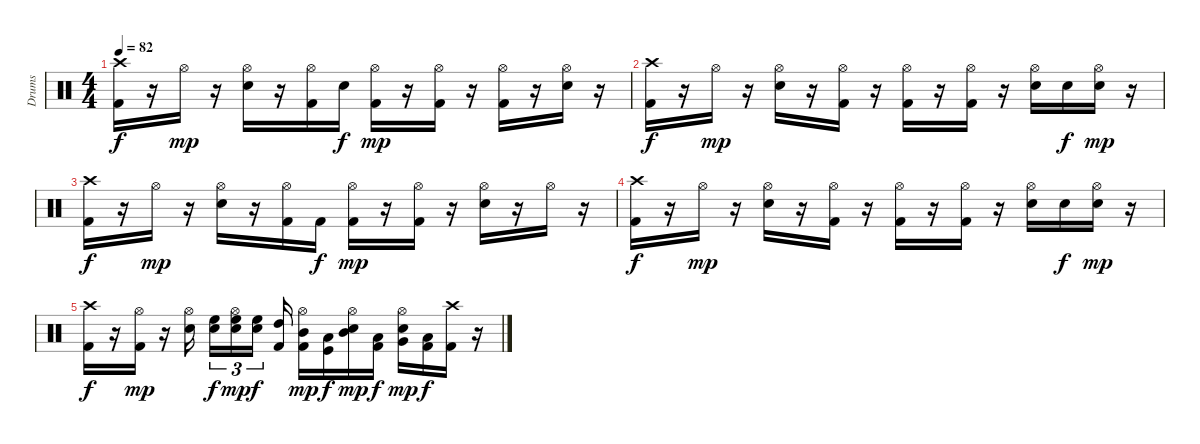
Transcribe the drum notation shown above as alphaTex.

\track ("Drums" "Drums") {instrument percussion}
\staff {score}
\articulation defaults
\ts (4 4)
\tempo 82
\clef neutral
\ks c
("Kick (hit) 2" "Crash high (hit)").16{dy f} r.16 "Hi-Hat (open)".16{dy mp} r.16 ("Snare (hit) 2" "Hi-Hat (open)").16 r.16 ("Kick (hit) 2" "Hi-Hat (open)").16 "Snare (hit) 2".16{dy f} ("Kick (hit) 2" "Hi-Hat (open)").16{dy mp} r.16 ("Kick (hit) 2" "Hi-Hat (open)").16 r.16 ("Kick (hit) 2" "Hi-Hat (open)").16 r.16 ("Snare (hit) 2" "Hi-Hat (open)").16 r.16 |
("Kick (hit) 2" "Crash high (hit)").16{dy f} r.16 "Hi-Hat (open)".16{dy mp} r.16 ("Snare (hit) 2" "Hi-Hat (open)").16 r.16 ("Kick (hit) 2" "Hi-Hat (open)").16 r.16 ("Kick (hit) 2" "Hi-Hat (open)").16 r.16 ("Kick (hit) 2" "Hi-Hat (open)").16 r.16 ("Snare (hit) 2" "Hi-Hat (open)").16 "Snare (hit) 2".16{dy f} ("Snare (hit) 2" "Hi-Hat (open)").16{dy mp} r.16 |
("Kick (hit) 2" "Crash high (hit)").16{dy f} r.16 "Hi-Hat (open)".16{dy mp} r.16 ("Snare (hit) 2" "Hi-Hat (open)").16 r.16 ("Kick (hit) 2" "Hi-Hat (open)").16 "Kick (hit) 2".16{dy f} ("Kick (hit) 2" "Hi-Hat (open)").16{dy mp} r.16 ("Kick (hit) 2" "Hi-Hat (open)").16 r.16 ("Snare (hit) 2" "Hi-Hat (open)").16 r.16 "Hi-Hat (open)".16 r.16 |
("Kick (hit) 2" "Crash high (hit)").16{dy f} r.16 "Hi-Hat (open)".16{dy mp} r.16 ("Snare (hit) 2" "Hi-Hat (open)").16 r.16 ("Kick (hit) 2" "Hi-Hat (open)").16 r.16 ("Kick (hit) 2" "Hi-Hat (open)").16 r.16 ("Kick (hit) 2" "Hi-Hat (open)").16 r.16 ("Snare (hit) 2" "Hi-Hat (open)").16 "Snare (hit) 2".16{dy f} ("Snare (hit) 2" "Hi-Hat (open)").16{dy mp} r.16 |
("Kick (hit) 2" "Crash high (hit)").16{dy f} r.16 ("Kick (hit) 2" "Hi-Hat (open)").16{dy mp} r.16 ("Snare (hit) 2" "Hi-Hat (open)").16{beam splitsecondary} ("Snare (hit) 2" "High Floor Tom (hit)").16{tu (3 2) dy f} ("Snare (hit) 2" "High Floor Tom (hit)" "Hi-Hat (open)").16{tu (3 2) dy mp} ("Snare (hit) 2" "High Floor Tom (hit)").16{tu (3 2) dy f beam splitsecondary} ("Kick (hit) 2" "High Tom (hit)").16 ("Kick (hit) 2" "Mid Tom (hit)" "Hi-Hat (open)").16{dy mp} ("Kick (hit)" "Low Tom (hit)").16{dy f} ("Snare (hit) 2" "Mid Tom (hit)" "Hi-Hat (open)").16{dy mp} ("Kick (hit) 2" "Low Tom (hit)").16{dy f} ("Snare (hit) 2" "Very Low Tom (hit)" "Hi-Hat (open)").16{dy mp} ("Kick (hit) 2" "Low Floor Tom (hit)").16{dy f} ("Kick (hit) 2" "Crash high (hit)").16 r.16
